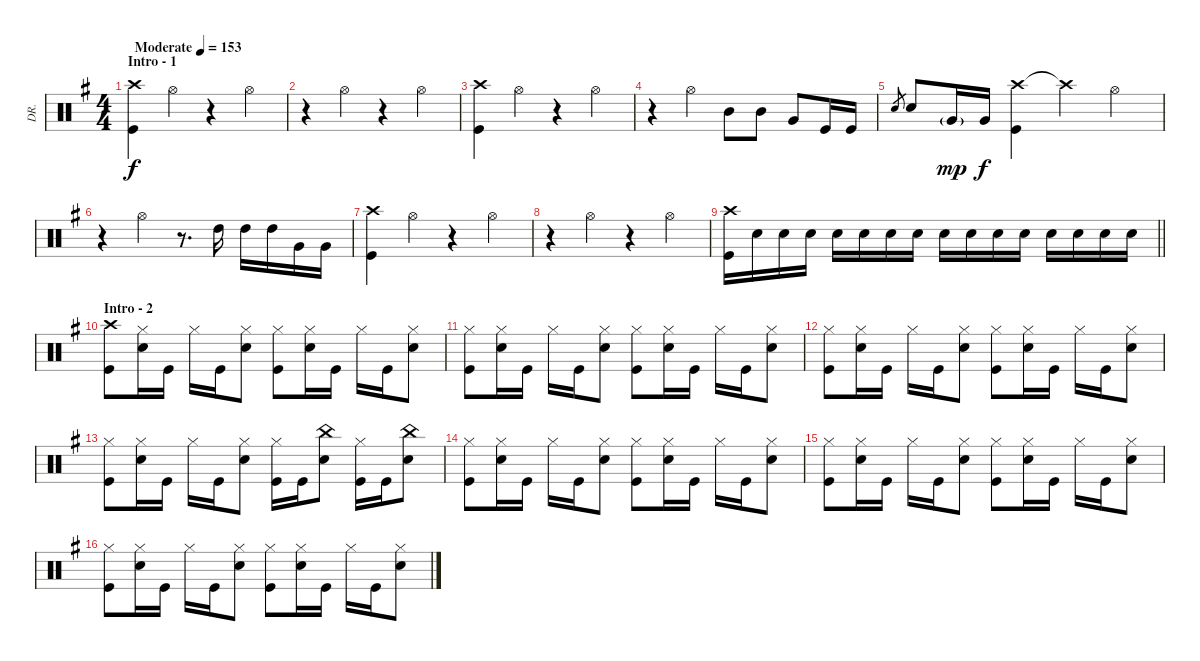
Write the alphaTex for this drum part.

\track ("DR." "DR.") {instrument percussion}
\staff {score}
\articulation defaults
\ts (4 4)
\section ("" "Intro - 1")
\tempo (153 "Moderate")
\clef neutral
\ks g
("Crash high (hit)" "Kick (hit)").4{dy f} "Hi-Hat (open)".4 r.4 "Hi-Hat (open)".4 |
r.4 "Hi-Hat (open)".4 r.4 "Hi-Hat (open)".4 |
("Crash high (hit)" "Kick (hit)").4 "Hi-Hat (open)".4 r.4 "Hi-Hat (open)".4 |
r.4 "Hi-Hat (open)".4 "Mid Tom (hit)".8 "Mid Tom (hit)".8 "Very Low Tom (hit)".8 "Kick (hit)".16 "Kick (hit)".16 |
"Snare (hit) 2"{h}.8{gr} "Snare (hit) 2".8 "Very Low Tom (hit)"{g}.16{dy mp} "Very Low Tom (hit)".16{dy f} ("Crash high (hit)" "Kick (hit)").4 "Crash high (hit)"{t}.4 "Hi-Hat (open)".4 |
r.4 "Hi-Hat (open)".4 r.8{d} "High Tom (hit)".16 "High Tom (hit)".16 "High Tom (hit)".16 "Very Low Tom (hit)".16 "Very Low Tom (hit)".16 |
("Crash high (hit)" "Kick (hit)").4 "Hi-Hat (open)".4 r.4 "Hi-Hat (open)".4 |
r.4 "Hi-Hat (open)".4 r.4 "Hi-Hat (open)".4 |
\barLineRight lightlight
("Crash high (hit)" "Kick (hit)").16 "Snare (hit) 2".16{volume 3} "Snare (hit) 2".16{volume 13} "Snare (hit) 2".16 "Snare (hit) 2".16 "Snare (hit) 2".16 "Snare (hit) 2".16 "Snare (hit) 2".16 "Snare (hit) 2".16 "Snare (hit) 2".16 "Snare (hit) 2".16 "Snare (hit) 2".16 "Snare (hit) 2".16 "Snare (hit) 2".16 "Snare (hit) 2".16 "Snare (hit) 2".16 |
\section ("" "Intro - 2")
("Crash high (hit)" "Kick (hit)").8 ("Hi-Hat (closed)" "Snare (hit) 2").16 "Kick (hit)".16 "Hi-Hat (closed)".16 "Kick (hit)".16 ("Hi-Hat (closed)" "Snare (hit) 2").8 ("Hi-Hat (closed)" "Kick (hit)").8 ("Hi-Hat (closed)" "Snare (hit) 2").16 "Kick (hit)".16 "Hi-Hat (closed)".16 "Kick (hit)".16 ("Hi-Hat (closed)" "Snare (hit) 2").8 |
("Hi-Hat (closed)" "Kick (hit)").8 ("Hi-Hat (closed)" "Snare (hit) 2").16 "Kick (hit)".16 "Hi-Hat (closed)".16 "Kick (hit)".16 ("Hi-Hat (closed)" "Snare (hit) 2").8 ("Hi-Hat (closed)" "Kick (hit)").8 ("Hi-Hat (closed)" "Snare (hit) 2").16 "Kick (hit)".16 "Hi-Hat (closed)".16 "Kick (hit)".16 ("Hi-Hat (closed)" "Snare (hit) 2").8 |
("Hi-Hat (closed)" "Kick (hit)").8 ("Hi-Hat (closed)" "Snare (hit) 2").16 "Kick (hit)".16 "Hi-Hat (closed)".16 "Kick (hit)".16 ("Hi-Hat (closed)" "Snare (hit) 2").8 ("Hi-Hat (closed)" "Kick (hit)").8 ("Hi-Hat (closed)" "Snare (hit) 2").16 "Kick (hit)".16 "Hi-Hat (closed)".16 "Kick (hit)".16 ("Hi-Hat (closed)" "Snare (hit) 2").8 |
("Hi-Hat (closed)" "Kick (hit)").8 ("Hi-Hat (closed)" "Snare (hit) 2").16 "Kick (hit)".16 "Hi-Hat (closed)".16 "Kick (hit)".16 ("Hi-Hat (closed)" "Snare (hit) 2").8 ("Hi-Hat (closed)" "Kick (hit)").16 "Kick (hit)".16 ("China (hit)" "Snare (hit) 2").8 ("Hi-Hat (closed)" "Kick (hit)").16 "Kick (hit)".16 ("China (hit)" "Snare (hit) 2").8 |
("Hi-Hat (closed)" "Kick (hit)").8 ("Hi-Hat (closed)" "Snare (hit) 2").16 "Kick (hit)".16 "Hi-Hat (closed)".16 "Kick (hit)".16 ("Hi-Hat (closed)" "Snare (hit) 2").8 ("Hi-Hat (closed)" "Kick (hit)").8 ("Hi-Hat (closed)" "Snare (hit) 2").16 "Kick (hit)".16 "Hi-Hat (closed)".16 "Kick (hit)".16 ("Hi-Hat (closed)" "Snare (hit) 2").8 |
("Hi-Hat (closed)" "Kick (hit)").8 ("Hi-Hat (closed)" "Snare (hit) 2").16 "Kick (hit)".16 "Hi-Hat (closed)".16 "Kick (hit)".16 ("Hi-Hat (closed)" "Snare (hit) 2").8 ("Hi-Hat (closed)" "Kick (hit)").8 ("Hi-Hat (closed)" "Snare (hit) 2").16 "Kick (hit)".16 "Hi-Hat (closed)".16 "Kick (hit)".16 ("Hi-Hat (closed)" "Snare (hit) 2").8 |
("Hi-Hat (closed)" "Kick (hit)").8 ("Hi-Hat (closed)" "Snare (hit) 2").16 "Kick (hit)".16 "Hi-Hat (closed)".16 "Kick (hit)".16 ("Hi-Hat (closed)" "Snare (hit) 2").8 ("Hi-Hat (closed)" "Kick (hit)").8 ("Hi-Hat (closed)" "Snare (hit) 2").16 "Kick (hit)".16 "Hi-Hat (closed)".16 "Kick (hit)".16 ("Hi-Hat (closed)" "Snare (hit) 2").8
